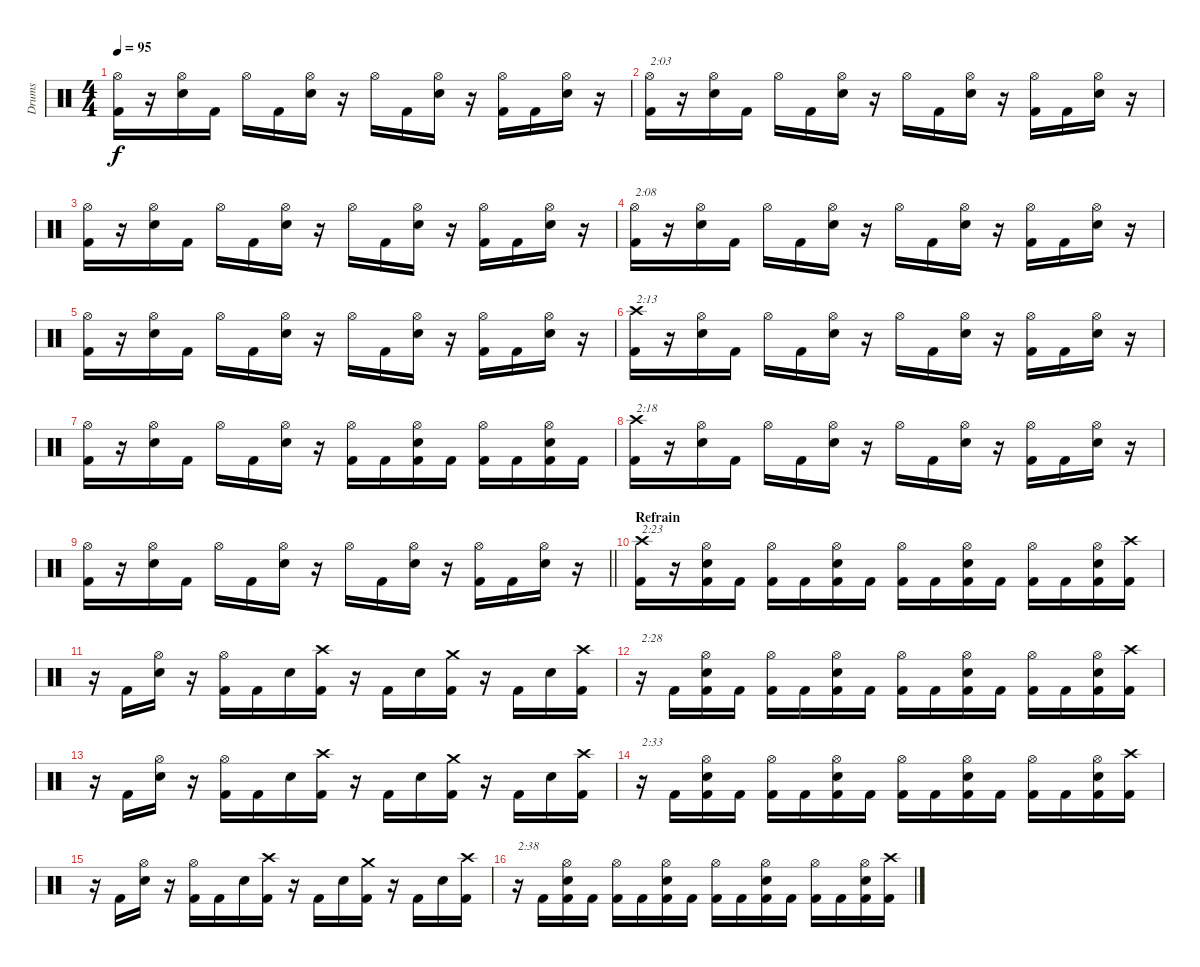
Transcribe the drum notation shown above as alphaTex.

\track ("Drums" "Drums") {instrument percussion}
\staff {score}
\articulation defaults
\ts (4 4)
\tempo 95
\clef neutral
\ks c
("Hi-Hat (open)" "Kick (hit) 2").16{dy f} r.16 ("Hi-Hat (open)" "Electric Snare (hit)").16 "Kick (hit) 2".16 "Hi-Hat (open)".16 "Kick (hit) 2".16 ("Hi-Hat (open)" "Electric Snare (hit)").16 r.16 "Hi-Hat (open)".16 "Kick (hit) 2".16 ("Hi-Hat (open)" "Electric Snare (hit)").16 r.16 ("Hi-Hat (open)" "Kick (hit) 2").16 "Kick (hit) 2".16 ("Hi-Hat (open)" "Electric Snare (hit)").16 r.16 |
("Hi-Hat (open)" "Kick (hit) 2").16{txt "2:03"} r.16 ("Hi-Hat (open)" "Electric Snare (hit)").16 "Kick (hit) 2".16 "Hi-Hat (open)".16 "Kick (hit) 2".16 ("Hi-Hat (open)" "Electric Snare (hit)").16 r.16 "Hi-Hat (open)".16 "Kick (hit) 2".16 ("Hi-Hat (open)" "Electric Snare (hit)").16 r.16 ("Hi-Hat (open)" "Kick (hit) 2").16 "Kick (hit) 2".16 ("Hi-Hat (open)" "Electric Snare (hit)").16 r.16 |
("Hi-Hat (open)" "Kick (hit) 2").16 r.16 ("Hi-Hat (open)" "Electric Snare (hit)").16 "Kick (hit) 2".16 "Hi-Hat (open)".16 "Kick (hit) 2".16 ("Hi-Hat (open)" "Electric Snare (hit)").16 r.16 "Hi-Hat (open)".16 "Kick (hit) 2".16 ("Hi-Hat (open)" "Electric Snare (hit)").16 r.16 ("Hi-Hat (open)" "Kick (hit) 2").16 "Kick (hit) 2".16 ("Hi-Hat (open)" "Electric Snare (hit)").16 r.16 |
("Hi-Hat (open)" "Kick (hit) 2").16{txt "2:08"} r.16 ("Hi-Hat (open)" "Electric Snare (hit)").16 "Kick (hit) 2".16 "Hi-Hat (open)".16 "Kick (hit) 2".16 ("Hi-Hat (open)" "Electric Snare (hit)").16 r.16 "Hi-Hat (open)".16 "Kick (hit) 2".16 ("Hi-Hat (open)" "Electric Snare (hit)").16 r.16 ("Hi-Hat (open)" "Kick (hit) 2").16 "Kick (hit) 2".16 ("Hi-Hat (open)" "Electric Snare (hit)").16 r.16 |
("Hi-Hat (open)" "Kick (hit) 2").16 r.16 ("Hi-Hat (open)" "Electric Snare (hit)").16 "Kick (hit) 2".16 "Hi-Hat (open)".16 "Kick (hit) 2".16 ("Hi-Hat (open)" "Electric Snare (hit)").16 r.16 "Hi-Hat (open)".16 "Kick (hit) 2".16 ("Hi-Hat (open)" "Electric Snare (hit)").16 r.16 ("Hi-Hat (open)" "Kick (hit) 2").16 "Kick (hit) 2".16 ("Hi-Hat (open)" "Electric Snare (hit)").16 r.16 |
("Crash high (hit)" "Kick (hit) 2").16{txt "2:13"} r.16 ("Hi-Hat (open)" "Electric Snare (hit)").16 "Kick (hit) 2".16 "Hi-Hat (open)".16 "Kick (hit) 2".16 ("Hi-Hat (open)" "Electric Snare (hit)").16 r.16 "Hi-Hat (open)".16 "Kick (hit) 2".16 ("Hi-Hat (open)" "Electric Snare (hit)").16 r.16 ("Hi-Hat (open)" "Kick (hit) 2").16 "Kick (hit) 2".16 ("Hi-Hat (open)" "Electric Snare (hit)").16 r.16 |
("Hi-Hat (open)" "Kick (hit) 2").16 r.16 ("Hi-Hat (open)" "Electric Snare (hit)").16 "Kick (hit) 2".16 "Hi-Hat (open)".16 "Kick (hit) 2".16 ("Hi-Hat (open)" "Electric Snare (hit)").16 r.16 ("Hi-Hat (open)" "Kick (hit) 2").16 "Kick (hit) 2".16 ("Hi-Hat (open)" "Electric Snare (hit)" "Kick (hit) 2").16 "Kick (hit) 2".16 ("Hi-Hat (open)" "Kick (hit) 2").16 "Kick (hit) 2".16 ("Hi-Hat (open)" "Electric Snare (hit)" "Kick (hit) 2").16 "Kick (hit) 2".16 |
("Crash high (hit)" "Kick (hit) 2").16{txt "2:18"} r.16 ("Hi-Hat (open)" "Electric Snare (hit)").16 "Kick (hit) 2".16 "Hi-Hat (open)".16 "Kick (hit) 2".16 ("Hi-Hat (open)" "Electric Snare (hit)").16 r.16 "Hi-Hat (open)".16 "Kick (hit) 2".16 ("Hi-Hat (open)" "Electric Snare (hit)").16 r.16 ("Hi-Hat (open)" "Kick (hit) 2").16 "Kick (hit) 2".16 ("Hi-Hat (open)" "Electric Snare (hit)").16 r.16 |
\barLineRight lightlight
("Hi-Hat (open)" "Kick (hit) 2").16 r.16 ("Hi-Hat (open)" "Electric Snare (hit)").16 "Kick (hit) 2".16 "Hi-Hat (open)".16 "Kick (hit) 2".16 ("Hi-Hat (open)" "Electric Snare (hit)").16 r.16 "Hi-Hat (open)".16 "Kick (hit) 2".16 ("Hi-Hat (open)" "Electric Snare (hit)").16 r.16 ("Hi-Hat (open)" "Kick (hit) 2").16 "Kick (hit) 2".16 ("Hi-Hat (open)" "Electric Snare (hit)").16 r.16 |
\section ("" "Refrain")
("Crash high (hit)" "Kick (hit) 2").16{txt "2:23"} r.16 ("Hi-Hat (open)" "Electric Snare (hit)" "Kick (hit) 2").16 "Kick (hit) 2".16 ("Hi-Hat (open)" "Kick (hit) 2").16 "Kick (hit) 2".16 ("Hi-Hat (open)" "Electric Snare (hit)" "Kick (hit) 2").16 "Kick (hit) 2".16 ("Hi-Hat (open)" "Kick (hit) 2").16 "Kick (hit) 2".16 ("Hi-Hat (open)" "Electric Snare (hit)" "Kick (hit) 2").16 "Kick (hit) 2".16 ("Hi-Hat (open)" "Kick (hit) 2").16 "Kick (hit) 2".16 ("Hi-Hat (open)" "Electric Snare (hit)" "Kick (hit) 2").16 ("Crash high (hit)" "Kick (hit) 2").16 |
r.16 "Kick (hit) 2".16 ("Hi-Hat (open)" "Electric Snare (hit)").16 r.16 ("Hi-Hat (open)" "Kick (hit) 2").16 "Kick (hit) 2".16 "Electric Snare (hit)".16 ("Crash high (hit)" "Kick (hit) 2").16 r.16 "Kick (hit) 2".16 "Electric Snare (hit)".16 ("Crash medium (hit)" "Kick (hit) 2").16 r.16 "Kick (hit) 2".16 "Electric Snare (hit)".16 ("Crash high (hit)" "Kick (hit) 2").16 |
r.16{txt "2:28"} "Kick (hit) 2".16 ("Hi-Hat (open)" "Electric Snare (hit)" "Kick (hit) 2").16 "Kick (hit) 2".16 ("Hi-Hat (open)" "Kick (hit) 2").16 "Kick (hit) 2".16 ("Hi-Hat (open)" "Electric Snare (hit)" "Kick (hit) 2").16 "Kick (hit) 2".16 ("Hi-Hat (open)" "Kick (hit) 2").16 "Kick (hit) 2".16 ("Hi-Hat (open)" "Electric Snare (hit)" "Kick (hit) 2").16 "Kick (hit) 2".16 ("Hi-Hat (open)" "Kick (hit) 2").16 "Kick (hit) 2".16 ("Hi-Hat (open)" "Electric Snare (hit)" "Kick (hit) 2").16 ("Crash high (hit)" "Kick (hit) 2").16 |
r.16 "Kick (hit) 2".16 ("Hi-Hat (open)" "Electric Snare (hit)").16 r.16 ("Hi-Hat (open)" "Kick (hit) 2").16 "Kick (hit) 2".16 "Electric Snare (hit)".16 ("Crash high (hit)" "Kick (hit) 2").16 r.16 "Kick (hit) 2".16 "Electric Snare (hit)".16 ("Crash medium (hit)" "Kick (hit) 2").16 r.16 "Kick (hit) 2".16 "Electric Snare (hit)".16 ("Crash high (hit)" "Kick (hit) 2").16 |
r.16{txt "2:33"} "Kick (hit) 2".16 ("Hi-Hat (open)" "Electric Snare (hit)" "Kick (hit) 2").16 "Kick (hit) 2".16 ("Hi-Hat (open)" "Kick (hit) 2").16 "Kick (hit) 2".16 ("Hi-Hat (open)" "Electric Snare (hit)" "Kick (hit) 2").16 "Kick (hit) 2".16 ("Hi-Hat (open)" "Kick (hit) 2").16 "Kick (hit) 2".16 ("Hi-Hat (open)" "Electric Snare (hit)" "Kick (hit) 2").16 "Kick (hit) 2".16 ("Hi-Hat (open)" "Kick (hit) 2").16 "Kick (hit) 2".16 ("Hi-Hat (open)" "Electric Snare (hit)" "Kick (hit) 2").16 ("Crash high (hit)" "Kick (hit) 2").16 |
r.16 "Kick (hit) 2".16 ("Hi-Hat (open)" "Electric Snare (hit)").16 r.16 ("Hi-Hat (open)" "Kick (hit) 2").16 "Kick (hit) 2".16 "Electric Snare (hit)".16 ("Crash high (hit)" "Kick (hit) 2").16 r.16 "Kick (hit) 2".16 "Electric Snare (hit)".16 ("Crash medium (hit)" "Kick (hit) 2").16 r.16 "Kick (hit) 2".16 "Electric Snare (hit)".16 ("Crash high (hit)" "Kick (hit) 2").16 |
r.16{txt "2:38"} "Kick (hit) 2".16 ("Hi-Hat (open)" "Electric Snare (hit)" "Kick (hit) 2").16 "Kick (hit) 2".16 ("Hi-Hat (open)" "Kick (hit) 2").16 "Kick (hit) 2".16 ("Hi-Hat (open)" "Electric Snare (hit)" "Kick (hit) 2").16 "Kick (hit) 2".16 ("Hi-Hat (open)" "Kick (hit) 2").16 "Kick (hit) 2".16 ("Hi-Hat (open)" "Electric Snare (hit)" "Kick (hit) 2").16 "Kick (hit) 2".16 ("Hi-Hat (open)" "Kick (hit) 2").16 "Kick (hit) 2".16 ("Hi-Hat (open)" "Electric Snare (hit)" "Kick (hit) 2").16 ("Crash high (hit)" "Kick (hit) 2").16
